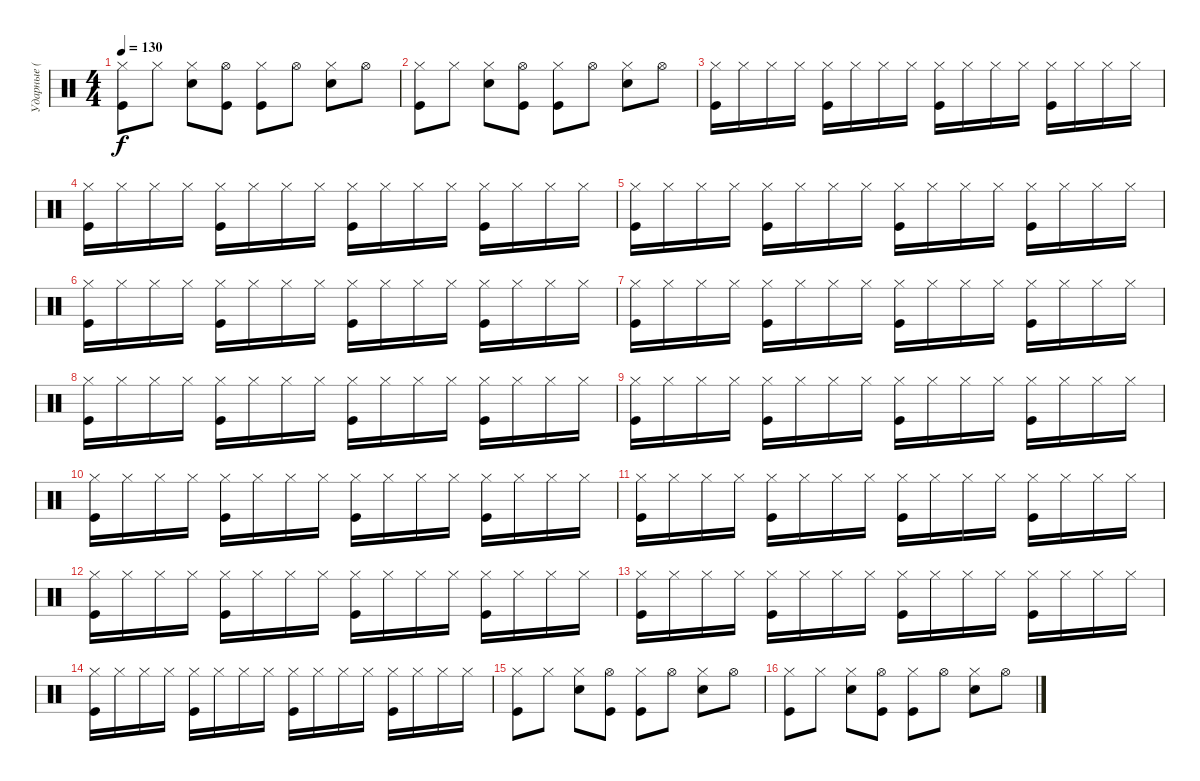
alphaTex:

\track (" Ударные (Котов)" " Ударные (") {instrument percussion}
\staff {score}
\articulation defaults
\ts (4 4)
\tempo 130
\clef neutral
\ks c
("Kick (hit)" "Hi-Hat (closed)").8{dy f} "Hi-Hat (closed)".8 ("Snare (hit) 2" "Hi-Hat (closed)").8 ("Kick (hit)" "Hi-Hat (open)").8 ("Kick (hit)" "Hi-Hat (closed)").8 "Hi-Hat (open)".8 ("Snare (hit) 2" "Hi-Hat (closed)").8 "Hi-Hat (open)".8 |
("Kick (hit)" "Hi-Hat (closed)").8 "Hi-Hat (closed)".8 ("Snare (hit) 2" "Hi-Hat (closed)").8 ("Kick (hit)" "Hi-Hat (open)").8 ("Kick (hit)" "Hi-Hat (closed)").8 "Hi-Hat (open)".8 ("Snare (hit) 2" "Hi-Hat (closed)").8 "Hi-Hat (open)".8 |
("Hi-Hat (closed)" "Kick (hit)").16 "Hi-Hat (closed)".16 "Hi-Hat (closed)".16 "Hi-Hat (closed)".16 ("Hi-Hat (closed)" "Kick (hit)").16 "Hi-Hat (closed)".16 "Hi-Hat (closed)".16 "Hi-Hat (closed)".16 ("Hi-Hat (closed)" "Kick (hit)").16 "Hi-Hat (closed)".16 "Hi-Hat (closed)".16 "Hi-Hat (closed)".16 ("Hi-Hat (closed)" "Kick (hit)").16 "Hi-Hat (closed)".16 "Hi-Hat (closed)".16 "Hi-Hat (closed)".16 |
("Hi-Hat (closed)" "Kick (hit)").16 "Hi-Hat (closed)".16 "Hi-Hat (closed)".16 "Hi-Hat (closed)".16 ("Hi-Hat (closed)" "Kick (hit)").16 "Hi-Hat (closed)".16 "Hi-Hat (closed)".16 "Hi-Hat (closed)".16 ("Hi-Hat (closed)" "Kick (hit)").16 "Hi-Hat (closed)".16 "Hi-Hat (closed)".16 "Hi-Hat (closed)".16 ("Hi-Hat (closed)" "Kick (hit)").16 "Hi-Hat (closed)".16 "Hi-Hat (closed)".16 "Hi-Hat (closed)".16 |
("Hi-Hat (closed)" "Kick (hit)").16 "Hi-Hat (closed)".16 "Hi-Hat (closed)".16 "Hi-Hat (closed)".16 ("Hi-Hat (closed)" "Kick (hit)").16 "Hi-Hat (closed)".16 "Hi-Hat (closed)".16 "Hi-Hat (closed)".16 ("Hi-Hat (closed)" "Kick (hit)").16 "Hi-Hat (closed)".16 "Hi-Hat (closed)".16 "Hi-Hat (closed)".16 ("Hi-Hat (closed)" "Kick (hit)").16 "Hi-Hat (closed)".16 "Hi-Hat (closed)".16 "Hi-Hat (closed)".16 |
("Hi-Hat (closed)" "Kick (hit)").16 "Hi-Hat (closed)".16 "Hi-Hat (closed)".16 "Hi-Hat (closed)".16 ("Hi-Hat (closed)" "Kick (hit)").16 "Hi-Hat (closed)".16 "Hi-Hat (closed)".16 "Hi-Hat (closed)".16 ("Hi-Hat (closed)" "Kick (hit)").16 "Hi-Hat (closed)".16 "Hi-Hat (closed)".16 "Hi-Hat (closed)".16 ("Hi-Hat (closed)" "Kick (hit)").16 "Hi-Hat (closed)".16 "Hi-Hat (closed)".16 "Hi-Hat (closed)".16 |
("Hi-Hat (closed)" "Kick (hit)").16 "Hi-Hat (closed)".16 "Hi-Hat (closed)".16 "Hi-Hat (closed)".16 ("Hi-Hat (closed)" "Kick (hit)").16 "Hi-Hat (closed)".16 "Hi-Hat (closed)".16 "Hi-Hat (closed)".16 ("Hi-Hat (closed)" "Kick (hit)").16 "Hi-Hat (closed)".16 "Hi-Hat (closed)".16 "Hi-Hat (closed)".16 ("Hi-Hat (closed)" "Kick (hit)").16 "Hi-Hat (closed)".16 "Hi-Hat (closed)".16 "Hi-Hat (closed)".16 |
("Hi-Hat (closed)" "Kick (hit)").16 "Hi-Hat (closed)".16 "Hi-Hat (closed)".16 "Hi-Hat (closed)".16 ("Hi-Hat (closed)" "Kick (hit)").16 "Hi-Hat (closed)".16 "Hi-Hat (closed)".16 "Hi-Hat (closed)".16 ("Hi-Hat (closed)" "Kick (hit)").16 "Hi-Hat (closed)".16 "Hi-Hat (closed)".16 "Hi-Hat (closed)".16 ("Hi-Hat (closed)" "Kick (hit)").16 "Hi-Hat (closed)".16 "Hi-Hat (closed)".16 "Hi-Hat (closed)".16 |
("Hi-Hat (closed)" "Kick (hit)").16 "Hi-Hat (closed)".16 "Hi-Hat (closed)".16 "Hi-Hat (closed)".16 ("Hi-Hat (closed)" "Kick (hit)").16 "Hi-Hat (closed)".16 "Hi-Hat (closed)".16 "Hi-Hat (closed)".16 ("Hi-Hat (closed)" "Kick (hit)").16 "Hi-Hat (closed)".16 "Hi-Hat (closed)".16 "Hi-Hat (closed)".16 ("Hi-Hat (closed)" "Kick (hit)").16 "Hi-Hat (closed)".16 "Hi-Hat (closed)".16 "Hi-Hat (closed)".16 |
("Hi-Hat (closed)" "Kick (hit)").16 "Hi-Hat (closed)".16 "Hi-Hat (closed)".16 "Hi-Hat (closed)".16 ("Hi-Hat (closed)" "Kick (hit)").16 "Hi-Hat (closed)".16 "Hi-Hat (closed)".16 "Hi-Hat (closed)".16 ("Hi-Hat (closed)" "Kick (hit)").16 "Hi-Hat (closed)".16 "Hi-Hat (closed)".16 "Hi-Hat (closed)".16 ("Hi-Hat (closed)" "Kick (hit)").16 "Hi-Hat (closed)".16 "Hi-Hat (closed)".16 "Hi-Hat (closed)".16 |
("Hi-Hat (closed)" "Kick (hit)").16 "Hi-Hat (closed)".16 "Hi-Hat (closed)".16 "Hi-Hat (closed)".16 ("Hi-Hat (closed)" "Kick (hit)").16 "Hi-Hat (closed)".16 "Hi-Hat (closed)".16 "Hi-Hat (closed)".16 ("Hi-Hat (closed)" "Kick (hit)").16 "Hi-Hat (closed)".16 "Hi-Hat (closed)".16 "Hi-Hat (closed)".16 ("Hi-Hat (closed)" "Kick (hit)").16 "Hi-Hat (closed)".16 "Hi-Hat (closed)".16 "Hi-Hat (closed)".16 |
("Hi-Hat (closed)" "Kick (hit)").16 "Hi-Hat (closed)".16 "Hi-Hat (closed)".16 "Hi-Hat (closed)".16 ("Hi-Hat (closed)" "Kick (hit)").16 "Hi-Hat (closed)".16 "Hi-Hat (closed)".16 "Hi-Hat (closed)".16 ("Hi-Hat (closed)" "Kick (hit)").16 "Hi-Hat (closed)".16 "Hi-Hat (closed)".16 "Hi-Hat (closed)".16 ("Hi-Hat (closed)" "Kick (hit)").16 "Hi-Hat (closed)".16 "Hi-Hat (closed)".16 "Hi-Hat (closed)".16 |
("Hi-Hat (closed)" "Kick (hit)").16 "Hi-Hat (closed)".16 "Hi-Hat (closed)".16 "Hi-Hat (closed)".16 ("Hi-Hat (closed)" "Kick (hit)").16 "Hi-Hat (closed)".16 "Hi-Hat (closed)".16 "Hi-Hat (closed)".16 ("Hi-Hat (closed)" "Kick (hit)").16 "Hi-Hat (closed)".16 "Hi-Hat (closed)".16 "Hi-Hat (closed)".16 ("Hi-Hat (closed)" "Kick (hit)").16 "Hi-Hat (closed)".16 "Hi-Hat (closed)".16 "Hi-Hat (closed)".16 |
("Hi-Hat (closed)" "Kick (hit)").16 "Hi-Hat (closed)".16 "Hi-Hat (closed)".16 "Hi-Hat (closed)".16 ("Hi-Hat (closed)" "Kick (hit)").16 "Hi-Hat (closed)".16 "Hi-Hat (closed)".16 "Hi-Hat (closed)".16 ("Hi-Hat (closed)" "Kick (hit)").16 "Hi-Hat (closed)".16 "Hi-Hat (closed)".16 "Hi-Hat (closed)".16 ("Hi-Hat (closed)" "Kick (hit)").16 "Hi-Hat (closed)".16 "Hi-Hat (closed)".16 "Hi-Hat (closed)".16 |
("Kick (hit)" "Hi-Hat (closed)").8 "Hi-Hat (closed)".8 ("Snare (hit) 2" "Hi-Hat (closed)").8 ("Kick (hit)" "Hi-Hat (open)").8 ("Kick (hit)" "Hi-Hat (closed)").8 "Hi-Hat (open)".8 ("Snare (hit) 2" "Hi-Hat (closed)").8 "Hi-Hat (open)".8 |
("Kick (hit)" "Hi-Hat (closed)").8 "Hi-Hat (closed)".8 ("Snare (hit) 2" "Hi-Hat (closed)").8 ("Kick (hit)" "Hi-Hat (open)").8 ("Kick (hit)" "Hi-Hat (closed)").8 "Hi-Hat (open)".8 ("Snare (hit) 2" "Hi-Hat (closed)").8 "Hi-Hat (open)".8
